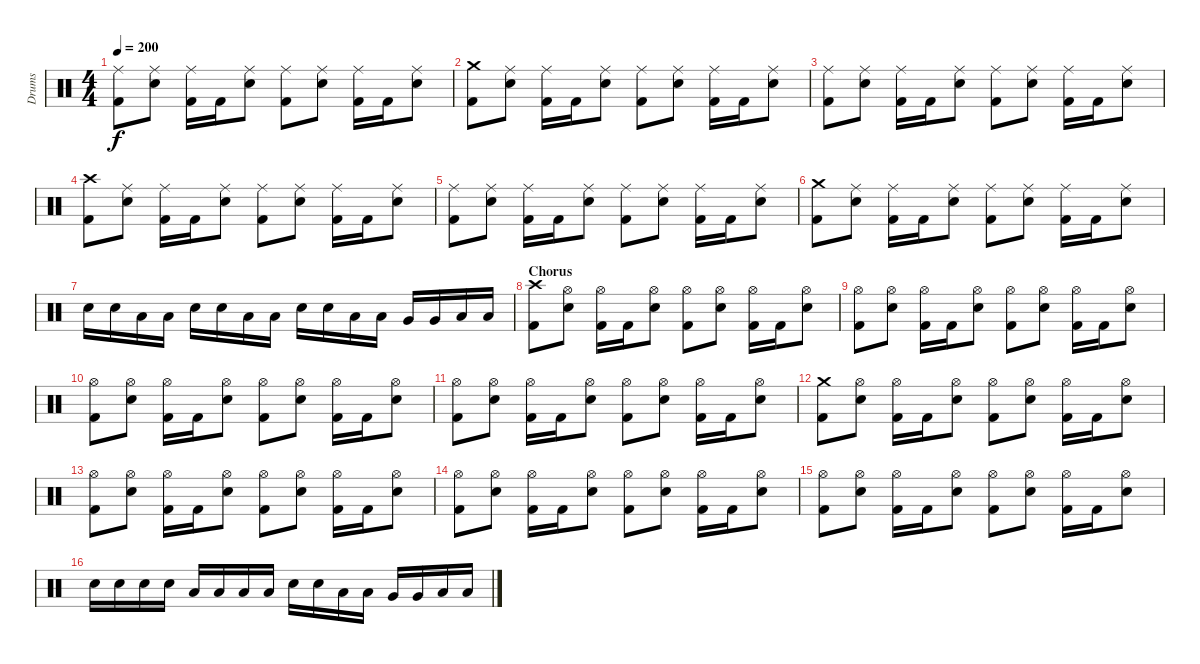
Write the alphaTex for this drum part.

\track ("Drums" "Drums") {instrument percussion}
\staff {score}
\articulation defaults
\ts (4 4)
\tempo 200
\clef neutral
\ks c
("Ride (middle)" "Kick (hit) 2").8{dy f} ("Ride (middle)" "Electric Snare (hit)").8 ("Ride (middle)" "Kick (hit) 2").16 "Kick (hit) 2".16 ("Ride (middle)" "Electric Snare (hit)").8 ("Ride (middle)" "Kick (hit) 2").8 ("Ride (middle)" "Electric Snare (hit)").8 ("Ride (middle)" "Kick (hit) 2").16 "Kick (hit) 2".16 ("Ride (middle)" "Electric Snare (hit)").8 |
("Crash medium (hit)" "Kick (hit) 2").8 ("Ride (middle)" "Electric Snare (hit)").8 ("Ride (middle)" "Kick (hit) 2").16 "Kick (hit) 2".16 ("Ride (middle)" "Electric Snare (hit)").8 ("Ride (middle)" "Kick (hit) 2").8 ("Ride (middle)" "Electric Snare (hit)").8 ("Ride (middle)" "Kick (hit) 2").16 "Kick (hit) 2".16 ("Ride (middle)" "Electric Snare (hit)").8 |
("Ride (middle)" "Kick (hit) 2").8 ("Ride (middle)" "Electric Snare (hit)").8 ("Ride (middle)" "Kick (hit) 2").16 "Kick (hit) 2".16 ("Ride (middle)" "Electric Snare (hit)").8 ("Ride (middle)" "Kick (hit) 2").8 ("Ride (middle)" "Electric Snare (hit)").8 ("Ride (middle)" "Kick (hit) 2").16 "Kick (hit) 2".16 ("Ride (middle)" "Electric Snare (hit)").8 |
("Crash high (hit)" "Kick (hit) 2").8 ("Ride (middle)" "Electric Snare (hit)").8 ("Ride (middle)" "Kick (hit) 2").16 "Kick (hit) 2".16 ("Ride (middle)" "Electric Snare (hit)").8 ("Ride (middle)" "Kick (hit) 2").8 ("Ride (middle)" "Electric Snare (hit)").8 ("Ride (middle)" "Kick (hit) 2").16 "Kick (hit) 2".16 ("Ride (middle)" "Electric Snare (hit)").8 |
("Ride (middle)" "Kick (hit) 2").8 ("Ride (middle)" "Electric Snare (hit)").8 ("Ride (middle)" "Kick (hit) 2").16 "Kick (hit) 2".16 ("Ride (middle)" "Electric Snare (hit)").8 ("Ride (middle)" "Kick (hit) 2").8 ("Ride (middle)" "Electric Snare (hit)").8 ("Ride (middle)" "Kick (hit) 2").16 "Kick (hit) 2".16 ("Ride (middle)" "Electric Snare (hit)").8 |
("Crash medium (hit)" "Kick (hit) 2").8 ("Ride (middle)" "Electric Snare (hit)").8 ("Ride (middle)" "Kick (hit) 2").16 "Kick (hit) 2".16 ("Ride (middle)" "Electric Snare (hit)").8 ("Ride (middle)" "Kick (hit) 2").8 ("Ride (middle)" "Electric Snare (hit)").8 ("Ride (middle)" "Kick (hit) 2").16 "Kick (hit) 2".16 ("Ride (middle)" "Electric Snare (hit)").8 |
"Electric Snare (hit)".16 "Electric Snare (hit)".16 "Low Tom (hit)".16 "Low Tom (hit)".16 "Electric Snare (hit)".16 "Electric Snare (hit)".16 "Low Tom (hit)".16 "Low Tom (hit)".16 "Electric Snare (hit)".16 "Electric Snare (hit)".16 "Low Tom (hit)".16 "Low Tom (hit)".16 "Very Low Tom (hit)".16 "Very Low Tom (hit)".16 "Low Floor Tom (hit)".16 "Low Floor Tom (hit)".16 |
\section ("" "Chorus")
("Crash high (hit)" "Kick (hit) 2").8 ("Hi-Hat (open)" "Electric Snare (hit)").8 ("Hi-Hat (open)" "Kick (hit) 2").16 "Kick (hit) 2".16 ("Hi-Hat (open)" "Electric Snare (hit)").8 ("Hi-Hat (open)" "Kick (hit) 2").8 ("Hi-Hat (open)" "Electric Snare (hit)").8 ("Hi-Hat (open)" "Kick (hit) 2").16 "Kick (hit) 2".16 ("Hi-Hat (open)" "Electric Snare (hit)").8 |
("Hi-Hat (open)" "Kick (hit) 2").8 ("Hi-Hat (open)" "Electric Snare (hit)").8 ("Hi-Hat (open)" "Kick (hit) 2").16 "Kick (hit) 2".16 ("Hi-Hat (open)" "Electric Snare (hit)").8 ("Hi-Hat (open)" "Kick (hit) 2").8 ("Hi-Hat (open)" "Electric Snare (hit)").8 ("Hi-Hat (open)" "Kick (hit) 2").16 "Kick (hit) 2".16 ("Hi-Hat (open)" "Electric Snare (hit)").8 |
("Hi-Hat (open)" "Kick (hit) 2").8 ("Hi-Hat (open)" "Electric Snare (hit)").8 ("Hi-Hat (open)" "Kick (hit) 2").16 "Kick (hit) 2".16 ("Hi-Hat (open)" "Electric Snare (hit)").8 ("Hi-Hat (open)" "Kick (hit) 2").8 ("Hi-Hat (open)" "Electric Snare (hit)").8 ("Hi-Hat (open)" "Kick (hit) 2").16 "Kick (hit) 2".16 ("Hi-Hat (open)" "Electric Snare (hit)").8 |
("Hi-Hat (open)" "Kick (hit) 2").8 ("Hi-Hat (open)" "Electric Snare (hit)").8 ("Hi-Hat (open)" "Kick (hit) 2").16 "Kick (hit) 2".16 ("Hi-Hat (open)" "Electric Snare (hit)").8 ("Hi-Hat (open)" "Kick (hit) 2").8 ("Hi-Hat (open)" "Electric Snare (hit)").8 ("Hi-Hat (open)" "Kick (hit) 2").16 "Kick (hit) 2".16 ("Hi-Hat (open)" "Electric Snare (hit)").8 |
("Crash medium (hit)" "Kick (hit) 2").8 ("Hi-Hat (open)" "Electric Snare (hit)").8 ("Hi-Hat (open)" "Kick (hit) 2").16 "Kick (hit) 2".16 ("Hi-Hat (open)" "Electric Snare (hit)").8 ("Hi-Hat (open)" "Kick (hit) 2").8 ("Hi-Hat (open)" "Electric Snare (hit)").8 ("Hi-Hat (open)" "Kick (hit) 2").16 "Kick (hit) 2".16 ("Hi-Hat (open)" "Electric Snare (hit)").8 |
("Hi-Hat (open)" "Kick (hit) 2").8 ("Hi-Hat (open)" "Electric Snare (hit)").8 ("Hi-Hat (open)" "Kick (hit) 2").16 "Kick (hit) 2".16 ("Hi-Hat (open)" "Electric Snare (hit)").8 ("Hi-Hat (open)" "Kick (hit) 2").8 ("Hi-Hat (open)" "Electric Snare (hit)").8 ("Hi-Hat (open)" "Kick (hit) 2").16 "Kick (hit) 2".16 ("Hi-Hat (open)" "Electric Snare (hit)").8 |
("Hi-Hat (open)" "Kick (hit) 2").8 ("Hi-Hat (open)" "Electric Snare (hit)").8 ("Hi-Hat (open)" "Kick (hit) 2").16 "Kick (hit) 2".16 ("Hi-Hat (open)" "Electric Snare (hit)").8 ("Hi-Hat (open)" "Kick (hit) 2").8 ("Hi-Hat (open)" "Electric Snare (hit)").8 ("Hi-Hat (open)" "Kick (hit) 2").16 "Kick (hit) 2".16 ("Hi-Hat (open)" "Electric Snare (hit)").8 |
("Hi-Hat (open)" "Kick (hit) 2").8 ("Hi-Hat (open)" "Electric Snare (hit)").8 ("Hi-Hat (open)" "Kick (hit) 2").16 "Kick (hit) 2".16 ("Hi-Hat (open)" "Electric Snare (hit)").8 ("Hi-Hat (open)" "Kick (hit) 2").8 ("Hi-Hat (open)" "Electric Snare (hit)").8 ("Hi-Hat (open)" "Kick (hit) 2").16 "Kick (hit) 2".16 ("Hi-Hat (open)" "Electric Snare (hit)").8 |
"Electric Snare (hit)".16 "Electric Snare (hit)".16 "Electric Snare (hit)".16 "Electric Snare (hit)".16 "Low Tom (hit)".16 "Low Tom (hit)".16 "Low Tom (hit)".16 "Low Tom (hit)".16 "Electric Snare (hit)".16 "Electric Snare (hit)".16 "Low Tom (hit)".16 "Low Tom (hit)".16 "Very Low Tom (hit)".16 "Very Low Tom (hit)".16 "Low Floor Tom (hit)".16 "Low Floor Tom (hit)".16
